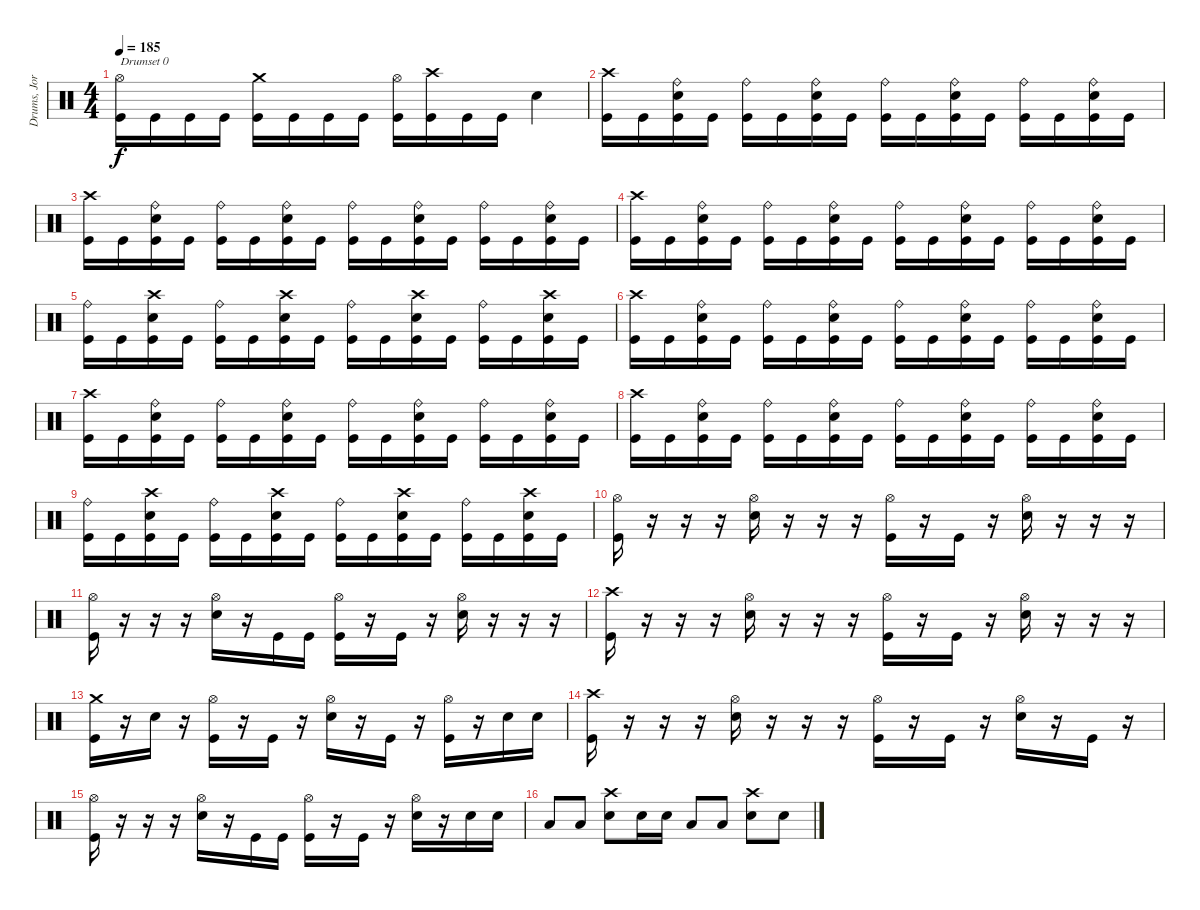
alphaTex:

\track ("Drums, Jorye Sáez" "Drums, Jor") {instrument percussion}
\staff {score}
\articulation defaults
\ts (4 4)
\tempo 185
\clef neutral
\ks c
("Hi-Hat (open)" "Kick (hit)").16{txt "Drumset 0" dy f} "Kick (hit)".16 "Kick (hit)".16 "Kick (hit)".16 ("Crash medium (hit)" "Kick (hit)").16 "Kick (hit)".16 "Kick (hit)".16 "Kick (hit)".16 ("Hi-Hat (open)" "Kick (hit)").16 ("Crash high (hit)" "Kick (hit)").16 "Kick (hit)".16 "Kick (hit)".16 "Electric Snare (hit)".4 |
("Crash high (hit)" "Kick (hit)").16 "Kick (hit)".16 ("Ride (bell)" "Electric Snare (hit)" "Kick (hit)").16 "Kick (hit)".16 ("Ride (bell)" "Kick (hit)").16 "Kick (hit)".16 ("Ride (bell)" "Electric Snare (hit)" "Kick (hit)").16 "Kick (hit)".16 ("Ride (bell)" "Kick (hit)").16 "Kick (hit)".16 ("Ride (bell)" "Electric Snare (hit)" "Kick (hit)").16 "Kick (hit)".16 ("Ride (bell)" "Kick (hit)").16 "Kick (hit)".16 ("Ride (bell)" "Electric Snare (hit)" "Kick (hit)").16 "Kick (hit)".16 |
("Crash high (hit)" "Kick (hit)").16 "Kick (hit)".16 ("Ride (bell)" "Electric Snare (hit)" "Kick (hit)").16 "Kick (hit)".16 ("Ride (bell)" "Kick (hit)").16 "Kick (hit)".16 ("Ride (bell)" "Electric Snare (hit)" "Kick (hit)").16 "Kick (hit)".16 ("Ride (bell)" "Kick (hit)").16 "Kick (hit)".16 ("Ride (bell)" "Electric Snare (hit)" "Kick (hit)").16 "Kick (hit)".16 ("Ride (bell)" "Kick (hit)").16 "Kick (hit)".16 ("Ride (bell)" "Electric Snare (hit)" "Kick (hit)").16 "Kick (hit)".16 |
("Crash high (hit)" "Kick (hit)").16 "Kick (hit)".16 ("Ride (bell)" "Electric Snare (hit)" "Kick (hit)").16 "Kick (hit)".16 ("Ride (bell)" "Kick (hit)").16 "Kick (hit)".16 ("Ride (bell)" "Electric Snare (hit)" "Kick (hit)").16 "Kick (hit)".16 ("Ride (bell)" "Kick (hit)").16 "Kick (hit)".16 ("Ride (bell)" "Electric Snare (hit)" "Kick (hit)").16 "Kick (hit)".16 ("Ride (bell)" "Kick (hit)").16 "Kick (hit)".16 ("Ride (bell)" "Electric Snare (hit)" "Kick (hit)").16 "Kick (hit)".16 |
("Ride (bell)" "Kick (hit)").16 "Kick (hit)".16 ("Crash high (hit)" "Electric Snare (hit)" "Kick (hit)").16 "Kick (hit)".16 ("Ride (bell)" "Kick (hit)").16 "Kick (hit)".16 ("Crash high (hit)" "Electric Snare (hit)" "Kick (hit)").16 "Kick (hit)".16 ("Ride (bell)" "Kick (hit)").16 "Kick (hit)".16 ("Crash high (hit)" "Electric Snare (hit)" "Kick (hit)").16 "Kick (hit)".16 ("Ride (bell)" "Kick (hit)").16 "Kick (hit)".16 ("Crash high (hit)" "Electric Snare (hit)" "Kick (hit)").16 "Kick (hit)".16 |
("Crash high (hit)" "Kick (hit)").16 "Kick (hit)".16 ("Ride (bell)" "Electric Snare (hit)" "Kick (hit)").16 "Kick (hit)".16 ("Ride (bell)" "Kick (hit)").16 "Kick (hit)".16 ("Ride (bell)" "Electric Snare (hit)" "Kick (hit)").16 "Kick (hit)".16 ("Ride (bell)" "Kick (hit)").16 "Kick (hit)".16 ("Ride (bell)" "Electric Snare (hit)" "Kick (hit)").16 "Kick (hit)".16 ("Ride (bell)" "Kick (hit)").16 "Kick (hit)".16 ("Ride (bell)" "Electric Snare (hit)" "Kick (hit)").16 "Kick (hit)".16 |
("Crash high (hit)" "Kick (hit)").16 "Kick (hit)".16 ("Ride (bell)" "Electric Snare (hit)" "Kick (hit)").16 "Kick (hit)".16 ("Ride (bell)" "Kick (hit)").16 "Kick (hit)".16 ("Ride (bell)" "Electric Snare (hit)" "Kick (hit)").16 "Kick (hit)".16 ("Ride (bell)" "Kick (hit)").16 "Kick (hit)".16 ("Ride (bell)" "Electric Snare (hit)" "Kick (hit)").16 "Kick (hit)".16 ("Ride (bell)" "Kick (hit)").16 "Kick (hit)".16 ("Ride (bell)" "Electric Snare (hit)" "Kick (hit)").16 "Kick (hit)".16 |
("Crash high (hit)" "Kick (hit)").16 "Kick (hit)".16 ("Ride (bell)" "Electric Snare (hit)" "Kick (hit)").16 "Kick (hit)".16 ("Ride (bell)" "Kick (hit)").16 "Kick (hit)".16 ("Ride (bell)" "Electric Snare (hit)" "Kick (hit)").16 "Kick (hit)".16 ("Ride (bell)" "Kick (hit)").16 "Kick (hit)".16 ("Ride (bell)" "Electric Snare (hit)" "Kick (hit)").16 "Kick (hit)".16 ("Ride (bell)" "Kick (hit)").16 "Kick (hit)".16 ("Ride (bell)" "Electric Snare (hit)" "Kick (hit)").16 "Kick (hit)".16 |
("Ride (bell)" "Kick (hit)").16 "Kick (hit)".16 ("Crash high (hit)" "Electric Snare (hit)" "Kick (hit)").16 "Kick (hit)".16 ("Ride (bell)" "Kick (hit)").16 "Kick (hit)".16 ("Crash high (hit)" "Electric Snare (hit)" "Kick (hit)").16 "Kick (hit)".16 ("Ride (bell)" "Kick (hit)").16 "Kick (hit)".16 ("Crash high (hit)" "Electric Snare (hit)" "Kick (hit)").16 "Kick (hit)".16 ("Ride (bell)" "Kick (hit)").16 "Kick (hit)".16 ("Crash high (hit)" "Electric Snare (hit)" "Kick (hit)").16 "Kick (hit)".16 |
("Hi-Hat (open)" "Kick (hit)").16 r.16 r.16 r.16 ("Hi-Hat (open)" "Electric Snare (hit)").16 r.16 r.16 r.16 ("Hi-Hat (open)" "Kick (hit)").16 r.16 "Kick (hit)".16 r.16 ("Hi-Hat (open)" "Electric Snare (hit)").16 r.16 r.16 r.16 |
("Hi-Hat (open)" "Kick (hit)").16 r.16 r.16 r.16 ("Hi-Hat (open)" "Electric Snare (hit)").16 r.16 "Kick (hit)".16 "Kick (hit)".16 ("Hi-Hat (open)" "Kick (hit)").16 r.16 "Kick (hit)".16 r.16 ("Hi-Hat (open)" "Electric Snare (hit)").16 r.16 r.16 r.16 |
("Crash high (hit)" "Kick (hit)").16 r.16 r.16 r.16 ("Hi-Hat (open)" "Electric Snare (hit)").16 r.16 r.16 r.16 ("Hi-Hat (open)" "Kick (hit)").16 r.16 "Kick (hit)".16 r.16 ("Hi-Hat (open)" "Electric Snare (hit)").16 r.16 r.16 r.16 |
("Crash medium (hit)" "Kick (hit)").16 r.16 "Electric Snare (hit)".16 r.16 ("Hi-Hat (open)" "Kick (hit)").16 r.16 "Kick (hit)".16 r.16 ("Hi-Hat (open)" "Electric Snare (hit)").16 r.16 "Kick (hit)".16 r.16 ("Hi-Hat (open)" "Kick (hit)").16 r.16 "Electric Snare (hit)".16 "Electric Snare (hit)".16 |
("Crash high (hit)" "Kick (hit)").16 r.16 r.16 r.16 ("Hi-Hat (open)" "Electric Snare (hit)").16 r.16 r.16 r.16 ("Hi-Hat (open)" "Kick (hit)").16 r.16 "Kick (hit)".16 r.16 ("Hi-Hat (open)" "Electric Snare (hit)").16 r.16 "Kick (hit)".16 r.16 |
("Hi-Hat (open)" "Kick (hit)").16 r.16 r.16 r.16 ("Hi-Hat (open)" "Electric Snare (hit)").16 r.16 "Kick (hit)".16 "Kick (hit)".16 ("Hi-Hat (open)" "Kick (hit)").16 r.16 "Kick (hit)".16 r.16 ("Hi-Hat (open)" "Electric Snare (hit)").16 r.16 "Electric Snare (hit)".16 "Electric Snare (hit)".16 |
"Low Tom (hit)".8 "Low Tom (hit)".8 ("Electric Snare (hit)" "Crash high (hit)").8 "Electric Snare (hit)".16 "Electric Snare (hit)".16 "Low Tom (hit)".8 "Low Tom (hit)".8 ("Electric Snare (hit)" "Crash high (hit)").8 "Electric Snare (hit)".8
